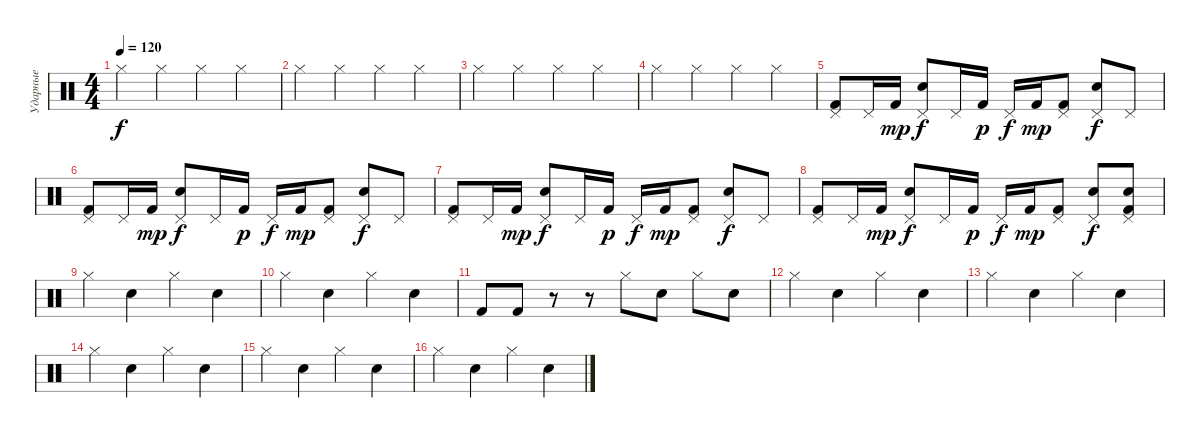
\track ("Ударные" "Ударные") {instrument percussion}
\staff {score}
\articulation defaults
\ts (4 4)
\tempo 120
\clef neutral
\ks c "Hi-Hat (closed)".4{dy f} "Hi-Hat (closed)".4 "Hi-Hat (closed)".4 "Hi-Hat (closed)".4
|
"Hi-Hat (closed)".4 "Hi-Hat (closed)".4 "Hi-Hat (closed)".4 "Hi-Hat (closed)".4 |
"Hi-Hat (closed)".4 "Hi-Hat (closed)".4 "Hi-Hat (closed)".4 "Hi-Hat (closed)".4 |
"Hi-Hat (closed)".4 "Hi-Hat (closed)".4 "Hi-Hat (closed)".4 "Hi-Hat (closed)".4 |
("Pedal Hi-Hat (hit)" "Kick (hit) 2").8 "Pedal Hi-Hat (hit)".16 "Kick (hit) 2".16{dy mp} ("Pedal Hi-Hat (hit)" "Snare (hit) 2").8{dy f} "Pedal Hi-Hat (hit)".16 "Kick (hit) 2".16{dy p} "Pedal Hi-Hat (hit)".16{dy f} "Kick (hit) 2".16{dy mp} ("Pedal Hi-Hat (hit)" "Kick (hit) 2").8 ("Pedal Hi-Hat (hit)" "Snare (hit) 2").8{dy f} "Pedal Hi-Hat (hit)".8 |
("Pedal Hi-Hat (hit)" "Kick (hit) 2").8 "Pedal Hi-Hat (hit)".16 "Kick (hit) 2".16{dy mp} ("Pedal Hi-Hat (hit)" "Snare (hit) 2").8{dy f} "Pedal Hi-Hat (hit)".16 "Kick (hit) 2".16{dy p} "Pedal Hi-Hat (hit)".16{dy f} "Kick (hit) 2".16{dy mp} ("Pedal Hi-Hat (hit)" "Kick (hit) 2").8 ("Pedal Hi-Hat (hit)" "Snare (hit) 2").8{dy f} "Pedal Hi-Hat (hit)".8 |
("Pedal Hi-Hat (hit)" "Kick (hit) 2").8 "Pedal Hi-Hat (hit)".16 "Kick (hit) 2".16{dy mp} ("Pedal Hi-Hat (hit)" "Snare (hit) 2").8{dy f} "Pedal Hi-Hat (hit)".16 "Kick (hit) 2".16{dy p} "Pedal Hi-Hat (hit)".16{dy f} "Kick (hit) 2".16{dy mp} ("Pedal Hi-Hat (hit)" "Kick (hit) 2").8 ("Pedal Hi-Hat (hit)" "Snare (hit) 2").8{dy f} "Pedal Hi-Hat (hit)".8 |
("Pedal Hi-Hat (hit)" "Kick (hit) 2").8 "Pedal Hi-Hat (hit)".16 "Kick (hit) 2".16{dy mp} ("Pedal Hi-Hat (hit)" "Snare (hit) 2").8{dy f} "Pedal Hi-Hat (hit)".16 "Kick (hit) 2".16{dy p} "Pedal Hi-Hat (hit)".16{dy f} "Kick (hit) 2".16{dy mp} ("Pedal Hi-Hat (hit)" "Kick (hit) 2").8 ("Pedal Hi-Hat (hit)" "Snare (hit) 2").8{dy f} ("Pedal Hi-Hat (hit)" "Snare (hit) 2" "Kick (hit) 2").8 |
"Hi-Hat (closed)".4 "Snare (hit) 2".4 "Hi-Hat (closed)".4 "Snare (hit) 2".4 |
"Hi-Hat (closed)".4 "Snare (hit) 2".4 "Hi-Hat (closed)".4 "Snare (hit) 2".4 |
"Kick (hit) 2".8 "Kick (hit) 2".8 r.8 r.8 "Hi-Hat (closed)".8 "Snare (hit) 2".8 "Hi-Hat (closed)".8 "Snare (hit) 2".8 |
"Hi-Hat (closed)".4 "Snare (hit) 2".4 "Hi-Hat (closed)".4 "Snare (hit) 2".4 |
"Hi-Hat (closed)".4 "Snare (hit) 2".4 "Hi-Hat (closed)".4 "Snare (hit) 2".4 |
"Hi-Hat (closed)".4 "Snare (hit) 2".4 "Hi-Hat (closed)".4 "Snare (hit) 2".4 |
"Hi-Hat (closed)".4 "Snare (hit) 2".4 "Hi-Hat (closed)".4 "Snare (hit) 2".4 |
"Hi-Hat (closed)".4 "Snare (hit) 2".4 "Hi-Hat (closed)".4 "Snare (hit) 2".4
